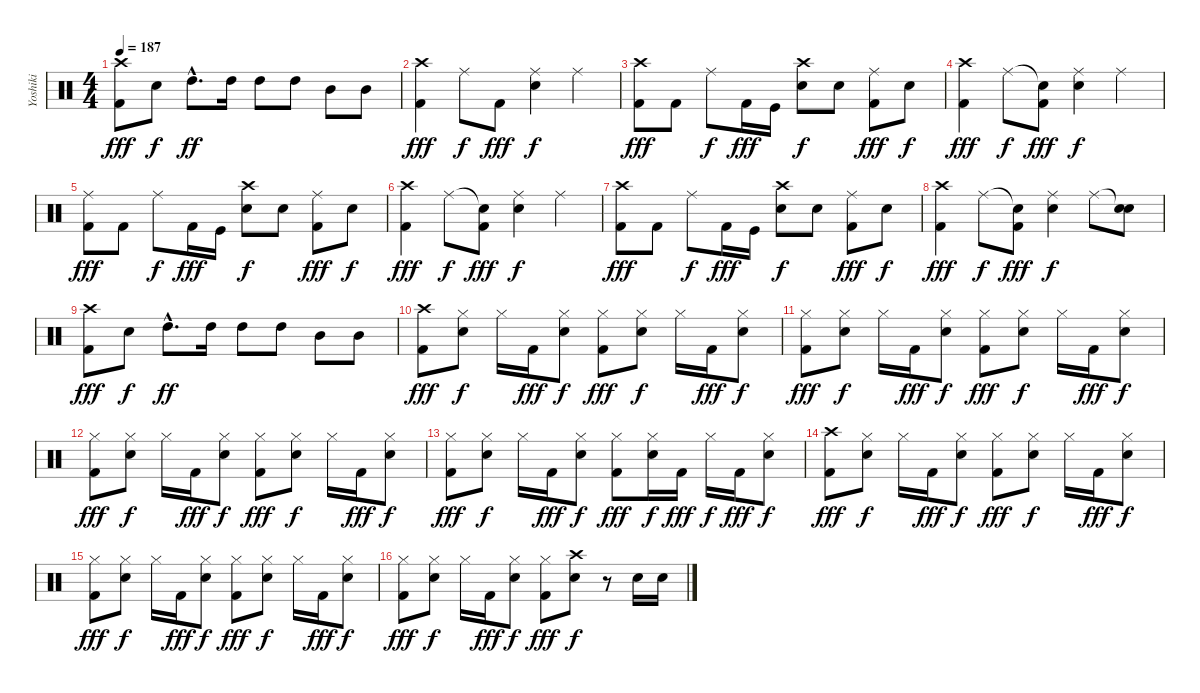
\track ("Yoshiki" "Yoshiki") {instrument percussion}
\staff {score}
\articulation defaults
\ts (4 4)
\tempo 187
\clef neutral
\ks c
("Crash high (hit)" "Kick (hit) 2").8{dy fff} "Electric Snare (hit)".8{dy f} "High Tom (hit)"{hac}.8{d dy ff} "High Tom (hit)".16 "High Tom (hit)".8 "High Tom (hit)".8 "Mid Tom (hit)".8 "Mid Tom (hit)".8 |
("Crash high (hit)" "Kick (hit) 2").4{dy fff} "Ride (middle)".8{dy f} "Kick (hit) 2".8{dy fff} ("Ride (middle)" "Electric Snare (hit)").4{dy f} "Ride (middle)".4 |
("Crash high (hit)" "Kick (hit) 2").8{dy fff} "Kick (hit) 2".8 "Ride (middle)".8{dy f} "Kick (hit) 2".16{dy fff} "Kick (hit)".16 ("Crash high (hit)" "Electric Snare (hit)").8{dy f} "Electric Snare (hit)".8 ("Ride (middle)" "Kick (hit) 2").8{dy fff} "Electric Snare (hit)".8{dy f} |
("Crash high (hit)" "Kick (hit) 2").4{dy fff} "Ride (middle)".8{dy f} ("Snare (hit)"{t} "Kick (hit) 2").8{dy fff} ("Ride (middle)" "Electric Snare (hit)").4{dy f} "Ride (middle)".4 |
("Ride (middle)" "Kick (hit) 2").8{dy fff} "Kick (hit) 2".8 "Ride (middle)".8{dy f} "Kick (hit) 2".16{dy fff} "Kick (hit)".16 ("Crash high (hit)" "Electric Snare (hit)").8{dy f} "Electric Snare (hit)".8 ("Ride (middle)" "Kick (hit) 2").8{dy fff} "Electric Snare (hit)".8{dy f} |
("Crash high (hit)" "Kick (hit) 2").4{dy fff} "Ride (middle)".8{dy f} ("Snare (hit)"{t} "Kick (hit) 2").8{dy fff} ("Ride (middle)" "Electric Snare (hit)").4{dy f} "Ride (middle)".4 |
("Crash high (hit)" "Kick (hit) 2").8{dy fff} "Kick (hit) 2".8 "Ride (middle)".8{dy f} "Kick (hit) 2".16{dy fff} "Kick (hit)".16 ("Crash high (hit)" "Electric Snare (hit)").8{dy f} "Electric Snare (hit)".8 ("Ride (middle)" "Kick (hit) 2").8{dy fff} "Electric Snare (hit)".8{dy f} |
("Crash high (hit)" "Kick (hit) 2").4{dy fff} "Ride (middle)".8{dy f} ("Snare (hit)"{t} "Kick (hit) 2").8{dy fff} ("Ride (middle)" "Electric Snare (hit)").4{dy f} "Ride (middle)".8 ("Snare (hit)"{t} "Electric Snare (hit)").8 |
("Crash high (hit)" "Kick (hit) 2").8{dy fff} "Electric Snare (hit)".8{dy f} "High Tom (hit)"{hac}.8{d dy ff} "High Tom (hit)".16 "High Tom (hit)".8 "High Tom (hit)".8 "Mid Tom (hit)".8 "Mid Tom (hit)".8 |
("Crash high (hit)" "Kick (hit) 2").8{dy fff} ("Hi-Hat (closed)" "Electric Snare (hit)").8{dy f} "Hi-Hat (closed)".16 "Kick (hit) 2".16{dy fff} ("Hi-Hat (closed)" "Electric Snare (hit)").8{dy f} ("Hi-Hat (closed)" "Kick (hit) 2").8{dy fff} ("Hi-Hat (closed)" "Electric Snare (hit)").8{dy f} "Hi-Hat (closed)".16 "Kick (hit) 2".16{dy fff} ("Hi-Hat (closed)" "Electric Snare (hit)").8{dy f} |
("Hi-Hat (closed)" "Kick (hit) 2").8{dy fff} ("Hi-Hat (closed)" "Electric Snare (hit)").8{dy f} "Hi-Hat (closed)".16 "Kick (hit) 2".16{dy fff} ("Hi-Hat (closed)" "Electric Snare (hit)").8{dy f} ("Hi-Hat (closed)" "Kick (hit) 2").8{dy fff} ("Hi-Hat (closed)" "Electric Snare (hit)").8{dy f} "Hi-Hat (closed)".16 "Kick (hit) 2".16{dy fff} ("Hi-Hat (closed)" "Electric Snare (hit)").8{dy f} |
("Hi-Hat (closed)" "Kick (hit) 2").8{dy fff} ("Hi-Hat (closed)" "Electric Snare (hit)").8{dy f} "Hi-Hat (closed)".16 "Kick (hit) 2".16{dy fff} ("Hi-Hat (closed)" "Electric Snare (hit)").8{dy f} ("Hi-Hat (closed)" "Kick (hit) 2").8{dy fff} ("Hi-Hat (closed)" "Electric Snare (hit)").8{dy f} "Hi-Hat (closed)".16 "Kick (hit) 2".16{dy fff} ("Hi-Hat (closed)" "Electric Snare (hit)").8{dy f} |
("Hi-Hat (closed)" "Kick (hit) 2").8{dy fff} ("Hi-Hat (closed)" "Electric Snare (hit)").8{dy f} "Hi-Hat (closed)".16 "Kick (hit) 2".16{dy fff} ("Hi-Hat (closed)" "Electric Snare (hit)").8{dy f} ("Hi-Hat (closed)" "Kick (hit) 2").8{dy fff} ("Hi-Hat (closed)" "Electric Snare (hit)").16{dy f} "Kick (hit) 2".16{dy fff} "Hi-Hat (closed)".16{dy f} "Kick (hit) 2".16{dy fff} ("Hi-Hat (closed)" "Electric Snare (hit)").8{dy f} |
("Crash high (hit)" "Kick (hit) 2").8{dy fff} ("Hi-Hat (closed)" "Electric Snare (hit)").8{dy f} "Hi-Hat (closed)".16 "Kick (hit) 2".16{dy fff} ("Hi-Hat (closed)" "Electric Snare (hit)").8{dy f} ("Hi-Hat (closed)" "Kick (hit) 2").8{dy fff} ("Hi-Hat (closed)" "Electric Snare (hit)").8{dy f} "Hi-Hat (closed)".16 "Kick (hit) 2".16{dy fff} ("Hi-Hat (closed)" "Electric Snare (hit)").8{dy f} |
("Hi-Hat (closed)" "Kick (hit) 2").8{dy fff} ("Hi-Hat (closed)" "Electric Snare (hit)").8{dy f} "Hi-Hat (closed)".16 "Kick (hit) 2".16{dy fff} ("Hi-Hat (closed)" "Electric Snare (hit)").8{dy f} ("Hi-Hat (closed)" "Kick (hit) 2").8{dy fff} ("Hi-Hat (closed)" "Electric Snare (hit)").8{dy f} "Hi-Hat (closed)".16 "Kick (hit) 2".16{dy fff} ("Hi-Hat (closed)" "Electric Snare (hit)").8{dy f} |
("Hi-Hat (closed)" "Kick (hit) 2").8{dy fff} ("Hi-Hat (closed)" "Electric Snare (hit)").8{dy f} "Hi-Hat (closed)".16 "Kick (hit) 2".16{dy fff} ("Hi-Hat (closed)" "Electric Snare (hit)").8{dy f} ("Hi-Hat (closed)" "Kick (hit) 2").8{dy fff} ("Crash high (hit)" "Electric Snare (hit)").8{dy f} r.8 "Electric Snare (hit)".16 "Electric Snare (hit)".16
